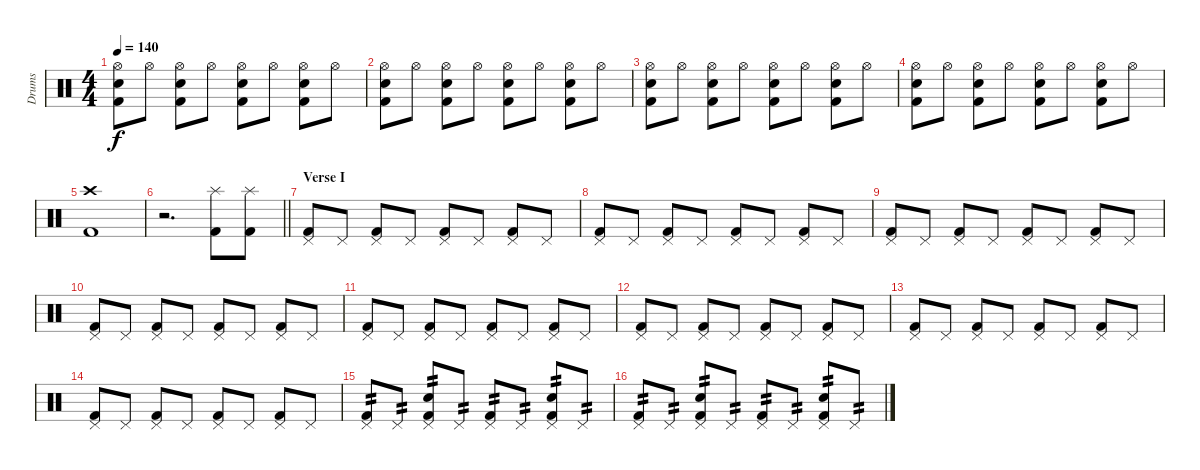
\track ("Drums" "Drums") {instrument percussion}
\staff {score}
\articulation defaults
\ts (4 4)
\tempo 140
\clef neutral
\ks c
("Hi-Hat (open)" "Snare (hit) 2" "Kick (hit) 2").8{dy f} "Hi-Hat (open)".8 ("Hi-Hat (open)" "Snare (hit) 2" "Kick (hit) 2").8 "Hi-Hat (open)".8 ("Hi-Hat (open)" "Snare (hit) 2" "Kick (hit) 2").8 "Hi-Hat (open)".8 ("Hi-Hat (open)" "Snare (hit) 2" "Kick (hit) 2").8 "Hi-Hat (open)".8 |
("Hi-Hat (open)" "Snare (hit) 2" "Kick (hit) 2").8 "Hi-Hat (open)".8 ("Hi-Hat (open)" "Snare (hit) 2" "Kick (hit) 2").8 "Hi-Hat (open)".8 ("Hi-Hat (open)" "Snare (hit) 2" "Kick (hit) 2").8 "Hi-Hat (open)".8 ("Hi-Hat (open)" "Snare (hit) 2" "Kick (hit) 2").8 "Hi-Hat (open)".8 |
("Hi-Hat (open)" "Snare (hit) 2" "Kick (hit) 2").8 "Hi-Hat (open)".8 ("Hi-Hat (open)" "Snare (hit) 2" "Kick (hit) 2").8 "Hi-Hat (open)".8 ("Hi-Hat (open)" "Snare (hit) 2" "Kick (hit) 2").8 "Hi-Hat (open)".8 ("Hi-Hat (open)" "Snare (hit) 2" "Kick (hit) 2").8 "Hi-Hat (open)".8 |
("Hi-Hat (open)" "Snare (hit) 2" "Kick (hit) 2").8 "Hi-Hat (open)".8 ("Hi-Hat (open)" "Snare (hit) 2" "Kick (hit) 2").8 "Hi-Hat (open)".8 ("Hi-Hat (open)" "Snare (hit) 2" "Kick (hit) 2").8 "Hi-Hat (open)".8 ("Hi-Hat (open)" "Snare (hit) 2" "Kick (hit) 2").8 "Hi-Hat (open)".8 |
("Crash high (hit)" "Kick (hit) 2").1 |
\barLineRight lightlight
r.2{d} ("Splash (hit)" "Kick (hit) 2").8 ("Splash (hit)" "Kick (hit) 2").8 |
\section ("" "Verse I")
("Pedal Hi-Hat (hit)" "Kick (hit) 2").8 "Pedal Hi-Hat (hit)".8 ("Pedal Hi-Hat (hit)" "Kick (hit) 2").8 "Pedal Hi-Hat (hit)".8 ("Pedal Hi-Hat (hit)" "Kick (hit) 2").8 "Pedal Hi-Hat (hit)".8 ("Pedal Hi-Hat (hit)" "Kick (hit) 2").8 "Pedal Hi-Hat (hit)".8 |
("Pedal Hi-Hat (hit)" "Kick (hit) 2").8 "Pedal Hi-Hat (hit)".8 ("Pedal Hi-Hat (hit)" "Kick (hit) 2").8 "Pedal Hi-Hat (hit)".8 ("Pedal Hi-Hat (hit)" "Kick (hit) 2").8 "Pedal Hi-Hat (hit)".8 ("Pedal Hi-Hat (hit)" "Kick (hit) 2").8 "Pedal Hi-Hat (hit)".8 |
("Pedal Hi-Hat (hit)" "Kick (hit) 2").8 "Pedal Hi-Hat (hit)".8 ("Pedal Hi-Hat (hit)" "Kick (hit) 2").8 "Pedal Hi-Hat (hit)".8 ("Pedal Hi-Hat (hit)" "Kick (hit) 2").8 "Pedal Hi-Hat (hit)".8 ("Pedal Hi-Hat (hit)" "Kick (hit) 2").8 "Pedal Hi-Hat (hit)".8 |
("Pedal Hi-Hat (hit)" "Kick (hit) 2").8 "Pedal Hi-Hat (hit)".8 ("Pedal Hi-Hat (hit)" "Kick (hit) 2").8 "Pedal Hi-Hat (hit)".8 ("Pedal Hi-Hat (hit)" "Kick (hit) 2").8 "Pedal Hi-Hat (hit)".8 ("Pedal Hi-Hat (hit)" "Kick (hit) 2").8 "Pedal Hi-Hat (hit)".8 |
("Pedal Hi-Hat (hit)" "Kick (hit) 2").8 "Pedal Hi-Hat (hit)".8 ("Pedal Hi-Hat (hit)" "Kick (hit) 2").8 "Pedal Hi-Hat (hit)".8 ("Pedal Hi-Hat (hit)" "Kick (hit) 2").8 "Pedal Hi-Hat (hit)".8 ("Pedal Hi-Hat (hit)" "Kick (hit) 2").8 "Pedal Hi-Hat (hit)".8 |
("Pedal Hi-Hat (hit)" "Kick (hit) 2").8 "Pedal Hi-Hat (hit)".8 ("Pedal Hi-Hat (hit)" "Kick (hit) 2").8 "Pedal Hi-Hat (hit)".8 ("Pedal Hi-Hat (hit)" "Kick (hit) 2").8 "Pedal Hi-Hat (hit)".8 ("Pedal Hi-Hat (hit)" "Kick (hit) 2").8 "Pedal Hi-Hat (hit)".8 |
("Pedal Hi-Hat (hit)" "Kick (hit) 2").8 "Pedal Hi-Hat (hit)".8 ("Pedal Hi-Hat (hit)" "Kick (hit) 2").8 "Pedal Hi-Hat (hit)".8 ("Pedal Hi-Hat (hit)" "Kick (hit) 2").8 "Pedal Hi-Hat (hit)".8 ("Pedal Hi-Hat (hit)" "Kick (hit) 2").8 "Pedal Hi-Hat (hit)".8 |
("Pedal Hi-Hat (hit)" "Kick (hit) 2").8 "Pedal Hi-Hat (hit)".8 ("Pedal Hi-Hat (hit)" "Kick (hit) 2").8 "Pedal Hi-Hat (hit)".8 ("Pedal Hi-Hat (hit)" "Kick (hit) 2").8 "Pedal Hi-Hat (hit)".8 ("Pedal Hi-Hat (hit)" "Kick (hit) 2").8 "Pedal Hi-Hat (hit)".8 |
("Pedal Hi-Hat (hit)" "Kick (hit) 2").8{tp 2} "Pedal Hi-Hat (hit)".8{tp 2} ("Pedal Hi-Hat (hit)" "Hand Clap (hit)" "Kick (hit) 2").8{tp 2} "Pedal Hi-Hat (hit)".8{tp 2} ("Pedal Hi-Hat (hit)" "Kick (hit) 2").8{tp 2} "Pedal Hi-Hat (hit)".8{tp 2} ("Pedal Hi-Hat (hit)" "Hand Clap (hit)" "Kick (hit) 2").8{tp 2} "Pedal Hi-Hat (hit)".8{tp 2} |
("Pedal Hi-Hat (hit)" "Kick (hit) 2").8{tp 2} "Pedal Hi-Hat (hit)".8{tp 2} ("Pedal Hi-Hat (hit)" "Hand Clap (hit)" "Kick (hit) 2").8{tp 2} "Pedal Hi-Hat (hit)".8{tp 2} ("Pedal Hi-Hat (hit)" "Kick (hit) 2").8{tp 2} "Pedal Hi-Hat (hit)".8{tp 2} ("Pedal Hi-Hat (hit)" "Hand Clap (hit)" "Kick (hit) 2").8{tp 2} "Pedal Hi-Hat (hit)".8{tp 2}
